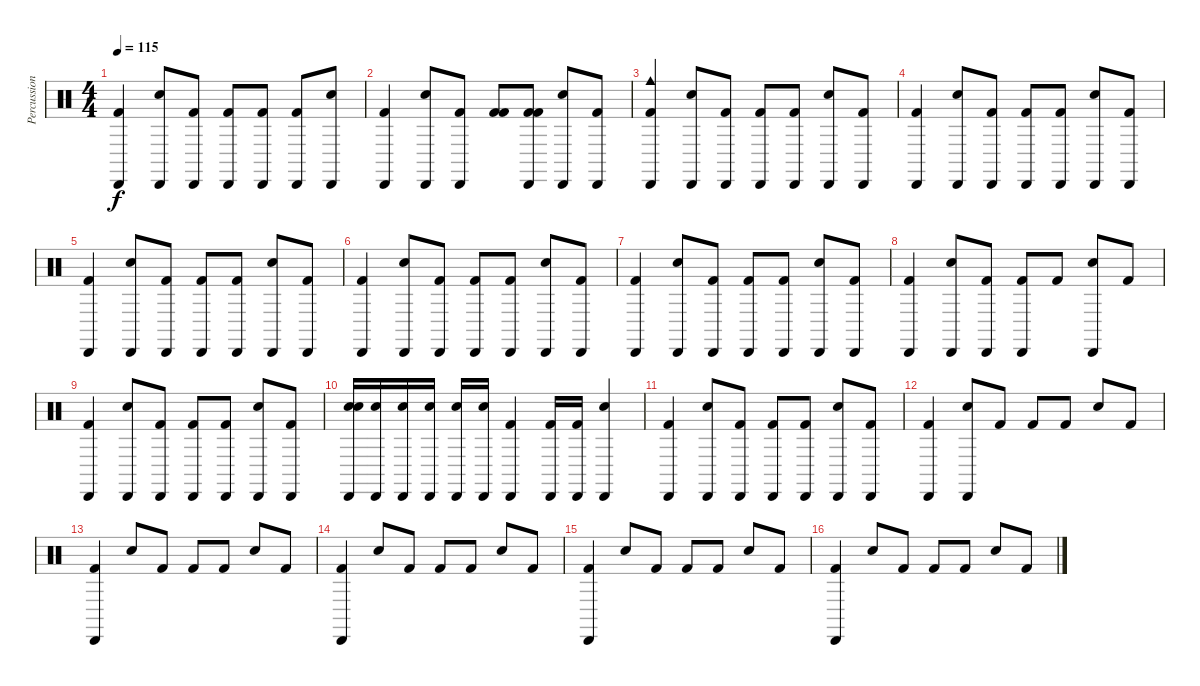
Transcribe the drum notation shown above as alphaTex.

\track ("Percussion" "Percussion") {instrument percussion}
\staff {score}
\articulation defaults
\ts (4 4)
\tempo 115
\clef neutral
\ks c
("Cabasa (hit)" "Kick (hit) 2").4{dy f} ("Cabasa (hit)" "Snare (hit) 2").8 ("Kick (hit) 2" "Cabasa (hit)").8 ("Kick (hit) 2" "Cabasa (hit)").8 ("Kick (hit) 2" "Cabasa (hit)").8 ("Cabasa (hit)" "Kick (hit) 2").8 ("Snare (hit) 2" "Cabasa (hit)").8 |
("Cabasa (hit)" "Kick (hit) 2").4 ("Cabasa (hit)" "Snare (hit) 2").8 ("Kick (hit) 2" "Cabasa (hit)").8 ("Kick (hit) 2" "Kick (hit) 2").8 ("Kick (hit) 2" "Kick (hit) 2" "Cabasa (hit)").8 ("Cabasa (hit)" "Snare (hit) 2").8 ("Cabasa (hit)" "Kick (hit) 2").8 |
("Cowbell medium (hit)" "Cabasa (hit)" "Kick (hit) 2").4 ("Snare (hit) 2" "Cabasa (hit)").8 ("Cabasa (hit)" "Kick (hit) 2").8 ("Kick (hit) 2" "Cabasa (hit)").8 ("Cabasa (hit)" "Kick (hit) 2").8 ("Snare (hit) 2" "Cabasa (hit)").8 ("Kick (hit) 2" "Cabasa (hit)").8 |
("Kick (hit) 2" "Cabasa (hit)").4 ("Cabasa (hit)" "Snare (hit) 2").8 ("Kick (hit) 2" "Cabasa (hit)").8 ("Kick (hit) 2" "Cabasa (hit)").8 ("Cabasa (hit)" "Kick (hit) 2").8 ("Snare (hit) 2" "Cabasa (hit)").8 ("Cabasa (hit)" "Kick (hit) 2").8 |
("Cabasa (hit)" "Kick (hit) 2").4 ("Snare (hit) 2" "Cabasa (hit)").8 ("Cabasa (hit)" "Kick (hit) 2").8 ("Cabasa (hit)" "Kick (hit) 2").8 ("Kick (hit) 2" "Cabasa (hit)").8 ("Cabasa (hit)" "Snare (hit) 2").8 ("Kick (hit) 2" "Cabasa (hit)").8 |
("Cabasa (hit)" "Kick (hit) 2").4 ("Cabasa (hit)" "Snare (hit) 2").8 ("Cabasa (hit)" "Kick (hit) 2").8 ("Kick (hit) 2" "Cabasa (hit)").8 ("Cabasa (hit)" "Kick (hit) 2").8 ("Snare (hit) 2" "Cabasa (hit)").8 ("Cabasa (hit)" "Kick (hit) 2").8 |
("Kick (hit) 2" "Cabasa (hit)").4 ("Snare (hit) 2" "Cabasa (hit)").8 ("Cabasa (hit)" "Kick (hit) 2").8 ("Cabasa (hit)" "Kick (hit) 2").8 ("Cabasa (hit)" "Kick (hit) 2").8 ("Snare (hit) 2" "Cabasa (hit)").8 ("Kick (hit) 2" "Cabasa (hit)").8 |
("Kick (hit) 2" "Cabasa (hit)").4 ("Cabasa (hit)" "Snare (hit) 2").8 ("Cabasa (hit)" "Kick (hit) 2").8 ("Kick (hit) 2" "Cabasa (hit)").8 "Kick (hit) 2".8 ("Cabasa (hit)" "Snare (hit) 2").8 "Kick (hit) 2".8 |
("Cabasa (hit)" "Kick (hit) 2").4 ("Snare (hit) 2" "Cabasa (hit)").8 ("Cabasa (hit)" "Kick (hit) 2").8 ("Kick (hit) 2" "Cabasa (hit)").8 ("Kick (hit) 2" "Cabasa (hit)").8 ("Cabasa (hit)" "Snare (hit) 2").8 ("Cabasa (hit)" "Kick (hit) 2").8 |
("Snare (hit) 2" "Snare (hit) 2" "Cabasa (hit)").16 ("Cabasa (hit)" "Snare (hit) 2").16 ("Snare (hit) 2" "Cabasa (hit)").16 ("Cabasa (hit)" "Snare (hit) 2").16 ("Cabasa (hit)" "Snare (hit) 2").16 ("Snare (hit) 2" "Cabasa (hit)").16 ("Kick (hit) 2" "Cabasa (hit)").4 ("Cabasa (hit)" "Kick (hit) 2").16 ("Cabasa (hit)" "Kick (hit) 2").16 ("Snare (hit) 2" "Cabasa (hit)").4 |
("Cabasa (hit)" "Kick (hit) 2").4 ("Cabasa (hit)" "Snare (hit) 2").8 ("Cabasa (hit)" "Kick (hit) 2").8 ("Kick (hit) 2" "Cabasa (hit)").8 ("Kick (hit) 2" "Cabasa (hit)").8 ("Snare (hit) 2" "Cabasa (hit)").8 ("Kick (hit) 2" "Cabasa (hit)").8 |
("Cabasa (hit)" "Kick (hit) 2").4 ("Snare (hit) 2" "Cabasa (hit)").8 "Kick (hit) 2".8 "Kick (hit) 2".8 "Kick (hit) 2".8 "Snare (hit) 2".8 "Kick (hit) 2".8 |
("Cabasa (hit)" "Kick (hit) 2").4 "Snare (hit) 2".8 "Kick (hit) 2".8 "Kick (hit) 2".8 "Kick (hit) 2".8 "Snare (hit) 2".8 "Kick (hit) 2".8 |
("Cabasa (hit)" "Kick (hit) 2").4 "Snare (hit) 2".8 "Kick (hit) 2".8 "Kick (hit) 2".8 "Kick (hit) 2".8 "Snare (hit) 2".8 "Kick (hit) 2".8 |
("Kick (hit) 2" "Cabasa (hit)").4 "Snare (hit) 2".8 "Kick (hit) 2".8 "Kick (hit) 2".8 "Kick (hit) 2".8 "Snare (hit) 2".8 "Kick (hit) 2".8 |
("Cabasa (hit)" "Kick (hit) 2").4 "Snare (hit) 2".8 "Kick (hit) 2".8 "Kick (hit) 2".8 "Kick (hit) 2".8 "Snare (hit) 2".8 "Kick (hit) 2".8
